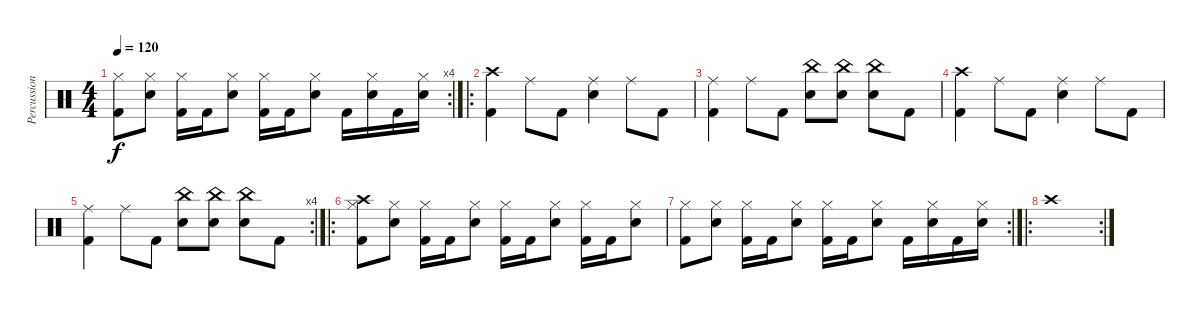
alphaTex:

\track ("Percussion" "Percussion") {instrument percussion}
\staff {score}
\articulation defaults
\rc 4
\ts (4 4)
\tempo 120
\clef neutral
\ks c
("Hi-Hat (closed)" "Kick (hit) 2").8{dy f} ("Hi-Hat (closed)" "Snare (hit) 2").8 ("Hi-Hat (closed)" "Kick (hit) 2").16 "Kick (hit) 2".16 ("Hi-Hat (closed)" "Snare (hit) 2").8 ("Hi-Hat (closed)" "Kick (hit) 2").16 "Kick (hit) 2".16 ("Hi-Hat (closed)" "Snare (hit) 2").8 "Kick (hit) 2".16 ("Hi-Hat (closed)" "Snare (hit) 2").16 "Kick (hit) 2".16 ("Hi-Hat (closed)" "Snare (hit) 2").16 |
\ro
("Crash high (hit)" "Kick (hit) 2").4 "Ride (middle)".8 "Kick (hit) 2".8 ("Ride (middle)" "Snare (hit) 2").4 "Ride (middle)".8 "Kick (hit) 2".8 |
("Ride (middle)" "Kick (hit) 2").4 "Ride (middle)".8 "Kick (hit) 2".8 ("China (hit)" "Snare (hit) 2").8 ("China (hit)" "Snare (hit) 2").8 ("China (hit)" "Snare (hit) 2").8 "Kick (hit) 2".8 |
("Crash high (hit)" "Kick (hit) 2").4 "Ride (middle)".8 "Kick (hit) 2".8 ("Ride (middle)" "Snare (hit) 2").4 "Ride (middle)".8 "Kick (hit) 2".8 |
\rc 4
("Ride (middle)" "Kick (hit) 2").4 "Ride (middle)".8 "Kick (hit) 2".8 ("China (hit)" "Snare (hit) 2").8 ("China (hit)" "Snare (hit) 2").8 ("China (hit)" "Snare (hit) 2").8 "Kick (hit) 2".8 |
\ro
("Crash high (hit)" "Hi-Hat (closed)" "Kick (hit) 2").8 ("Hi-Hat (closed)" "Snare (hit) 2").8 ("Hi-Hat (closed)" "Kick (hit) 2").16 "Kick (hit) 2".16 ("Hi-Hat (closed)" "Snare (hit) 2").8 ("Hi-Hat (closed)" "Kick (hit) 2").16 "Kick (hit) 2".16 ("Hi-Hat (closed)" "Snare (hit) 2").8 ("Hi-Hat (closed)" "Kick (hit) 2").16 "Kick (hit) 2".16 ("Hi-Hat (closed)" "Snare (hit) 2").8 |
\rc 2
("Hi-Hat (closed)" "Kick (hit) 2").8 ("Hi-Hat (closed)" "Snare (hit) 2").8 ("Hi-Hat (closed)" "Kick (hit) 2").16 "Kick (hit) 2".16 ("Hi-Hat (closed)" "Snare (hit) 2").8 ("Hi-Hat (closed)" "Kick (hit) 2").16 "Kick (hit) 2".16 ("Hi-Hat (closed)" "Snare (hit) 2").8 "Kick (hit) 2".16 ("Hi-Hat (closed)" "Snare (hit) 2").16 "Kick (hit) 2".16 ("Hi-Hat (closed)" "Snare (hit) 2").16 |
\ro
\rc 2 "Crash high (hit)".1
